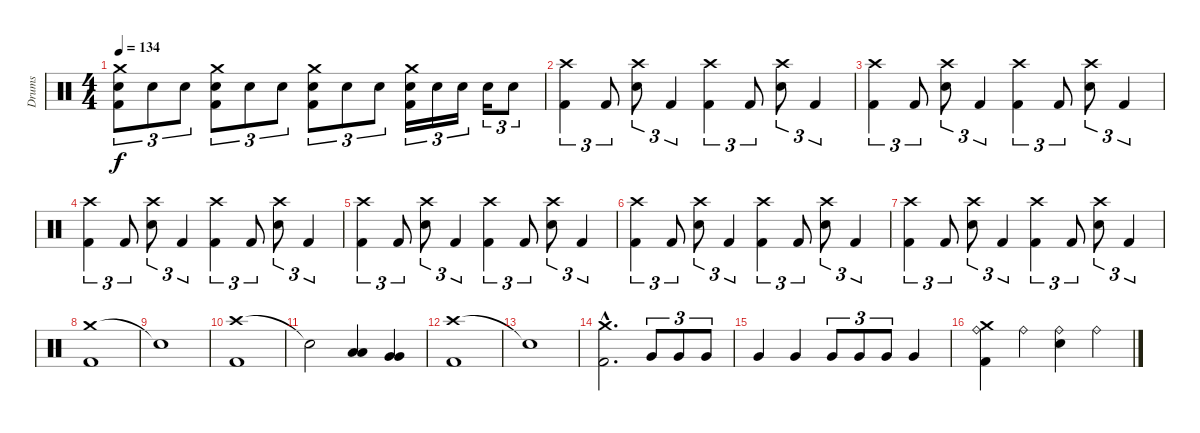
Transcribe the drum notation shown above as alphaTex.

\track ("Drums" "Drums") {instrument percussion}
\staff {score}
\articulation defaults
\ts (4 4)
\tempo 134
\clef neutral
\ks c
("Crash medium (hit)" "Electric Snare (hit)" "Kick (hit) 2").8{tu (3 2) dy f} "Electric Snare (hit)".8{tu (3 2)} "Electric Snare (hit)".8{tu (3 2)} ("Crash medium (hit)" "Electric Snare (hit)" "Kick (hit) 2").8{tu (3 2)} "Electric Snare (hit)".8{tu (3 2)} "Electric Snare (hit)".8{tu (3 2)} ("Crash medium (hit)" "Electric Snare (hit)" "Kick (hit) 2").8{tu (3 2)} "Electric Snare (hit)".8{tu (3 2)} "Electric Snare (hit)".8{tu (3 2)} ("Crash medium (hit)" "Electric Snare (hit)" "Kick (hit) 2").16{tu (3 2)} "Electric Snare (hit)".16{tu (3 2)} "Electric Snare (hit)".16{tu (3 2)} "Electric Snare (hit)".16{tu (3 2)} "Electric Snare (hit)".8{tu (3 2)} |
("Crash high (hit)" "Kick (hit) 2").4{tu (3 2)} "Kick (hit) 2".8{tu (3 2)} ("Crash high (hit)" "Electric Snare (hit)").8{tu (3 2)} "Kick (hit) 2".4{tu (3 2)} ("Crash high (hit)" "Kick (hit) 2").4{tu (3 2)} "Kick (hit) 2".8{tu (3 2)} ("Crash high (hit)" "Electric Snare (hit)").8{tu (3 2)} "Kick (hit) 2".4{tu (3 2)} |
("Crash high (hit)" "Kick (hit) 2").4{tu (3 2)} "Kick (hit) 2".8{tu (3 2)} ("Crash high (hit)" "Electric Snare (hit)").8{tu (3 2)} "Kick (hit) 2".4{tu (3 2)} ("Crash high (hit)" "Kick (hit) 2").4{tu (3 2)} "Kick (hit) 2".8{tu (3 2)} ("Crash high (hit)" "Electric Snare (hit)").8{tu (3 2)} "Kick (hit) 2".4{tu (3 2)} |
("Crash high (hit)" "Kick (hit) 2").4{tu (3 2)} "Kick (hit) 2".8{tu (3 2)} ("Crash high (hit)" "Electric Snare (hit)").8{tu (3 2)} "Kick (hit) 2".4{tu (3 2)} ("Crash high (hit)" "Kick (hit) 2").4{tu (3 2)} "Kick (hit) 2".8{tu (3 2)} ("Crash high (hit)" "Electric Snare (hit)").8{tu (3 2)} "Kick (hit) 2".4{tu (3 2)} |
("Crash high (hit)" "Kick (hit) 2").4{tu (3 2)} "Kick (hit) 2".8{tu (3 2)} ("Crash high (hit)" "Electric Snare (hit)").8{tu (3 2)} "Kick (hit) 2".4{tu (3 2)} ("Crash high (hit)" "Kick (hit) 2").4{tu (3 2)} "Kick (hit) 2".8{tu (3 2)} ("Crash high (hit)" "Electric Snare (hit)").8{tu (3 2)} "Kick (hit) 2".4{tu (3 2)} |
("Crash high (hit)" "Kick (hit) 2").4{tu (3 2)} "Kick (hit) 2".8{tu (3 2)} ("Crash high (hit)" "Electric Snare (hit)").8{tu (3 2)} "Kick (hit) 2".4{tu (3 2)} ("Crash high (hit)" "Kick (hit) 2").4{tu (3 2)} "Kick (hit) 2".8{tu (3 2)} ("Crash high (hit)" "Electric Snare (hit)").8{tu (3 2)} "Kick (hit) 2".4{tu (3 2)} |
("Crash high (hit)" "Kick (hit) 2").4{tu (3 2)} "Kick (hit) 2".8{tu (3 2)} ("Crash high (hit)" "Electric Snare (hit)").8{tu (3 2)} "Kick (hit) 2".4{tu (3 2)} ("Crash high (hit)" "Kick (hit) 2").4{tu (3 2)} "Kick (hit) 2".8{tu (3 2)} ("Crash high (hit)" "Electric Snare (hit)").8{tu (3 2)} "Kick (hit) 2".4{tu (3 2)} |
("Crash medium (hit)" "Kick (hit) 2").1 |
"Snare (hit)"{t}.1 |
("Crash high (hit)" "Kick (hit) 2").1 |
"Snare (hit)"{t}.2 ("Low Floor Tom (hit)" "Low Floor Tom (hit)").4 ("Very Low Tom (hit)" "Very Low Tom (hit)").4 |
("Crash high (hit)" "Kick (hit) 2").1 |
"Snare (hit)"{t}.1 |
("Crash medium (hit)"{hac} "Kick (hit) 2"{hac}).2{d} "Very Low Tom (hit)".8{tu (3 2)} "Very Low Tom (hit)".8{tu (3 2)} "Very Low Tom (hit)".8{tu (3 2)} |
"Very Low Tom (hit)".4 "Very Low Tom (hit)".4 "Very Low Tom (hit)".8{tu (3 2)} "Very Low Tom (hit)".8{tu (3 2)} "Very Low Tom (hit)".8{tu (3 2)} "Very Low Tom (hit)".4 |
("Crash medium (hit)" "Ride (bell)" "Kick (hit) 2").4 "Ride (bell)".4 ("Ride (bell)" "Electric Snare (hit)").4 "Ride (bell)".4
